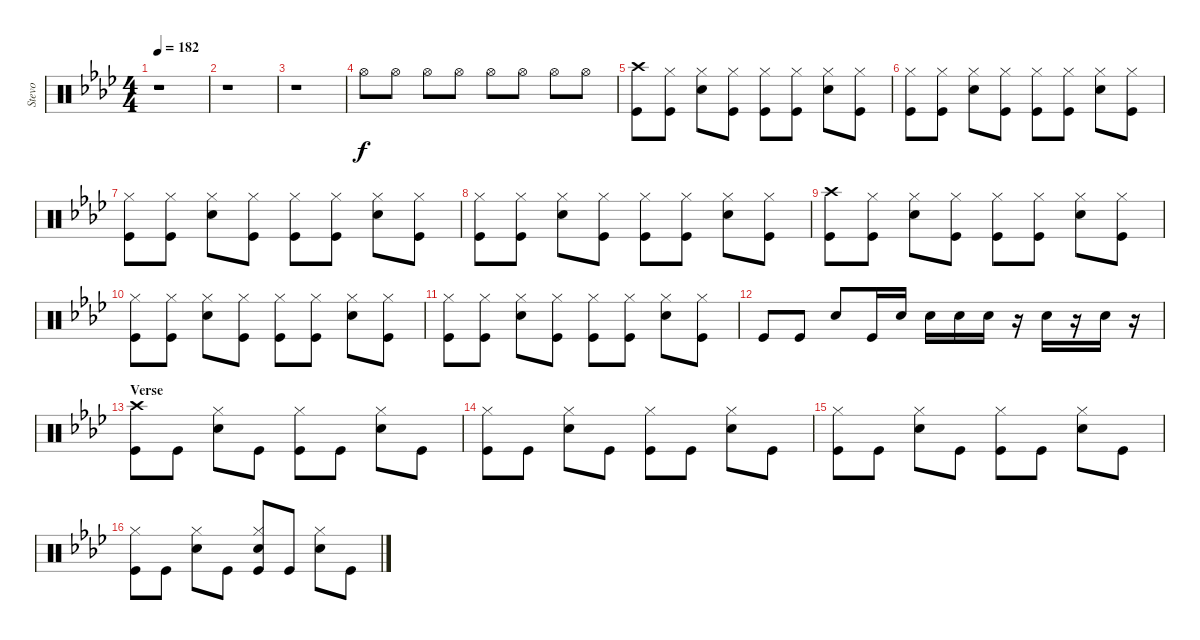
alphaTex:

\track ("Stevo" "Stevo") {instrument percussion}
\staff {score}
\articulation defaults
\ts (4 4)
\tempo 182
\clef neutral
\ks ab
r.1{dy f} |
r.1 |
r.1 |
\section ("" "")
"Hi-Hat (open)".8 "Hi-Hat (open)".8 "Hi-Hat (open)".8 "Hi-Hat (open)".8 "Hi-Hat (open)".8 "Hi-Hat (open)".8 "Hi-Hat (open)".8 "Hi-Hat (open)".8 |
("Crash high (hit)" "Kick (hit)").8 ("Hi-Hat (closed)" "Kick (hit)").8 ("Hi-Hat (closed)" "Snare (hit) 2").8 ("Hi-Hat (closed)" "Kick (hit)").8 ("Hi-Hat (closed)" "Kick (hit)").8 ("Hi-Hat (closed)" "Kick (hit)").8 ("Hi-Hat (closed)" "Snare (hit) 2").8 ("Hi-Hat (closed)" "Kick (hit)").8 |
("Hi-Hat (closed)" "Kick (hit)").8 ("Hi-Hat (closed)" "Kick (hit)").8 ("Hi-Hat (closed)" "Snare (hit) 2").8 ("Hi-Hat (closed)" "Kick (hit)").8 ("Hi-Hat (closed)" "Kick (hit)").8 ("Hi-Hat (closed)" "Kick (hit)").8 ("Hi-Hat (closed)" "Snare (hit) 2").8 ("Hi-Hat (closed)" "Kick (hit)").8 |
("Hi-Hat (closed)" "Kick (hit)").8 ("Hi-Hat (closed)" "Kick (hit)").8 ("Hi-Hat (closed)" "Snare (hit) 2").8 ("Hi-Hat (closed)" "Kick (hit)").8 ("Hi-Hat (closed)" "Kick (hit)").8 ("Hi-Hat (closed)" "Kick (hit)").8 ("Hi-Hat (closed)" "Snare (hit) 2").8 ("Hi-Hat (closed)" "Kick (hit)").8 |
("Hi-Hat (closed)" "Kick (hit)").8 ("Hi-Hat (closed)" "Kick (hit)").8 ("Hi-Hat (closed)" "Snare (hit) 2").8 ("Hi-Hat (closed)" "Kick (hit)").8 ("Hi-Hat (closed)" "Kick (hit)").8 ("Hi-Hat (closed)" "Kick (hit)").8 ("Hi-Hat (closed)" "Snare (hit) 2").8 ("Hi-Hat (closed)" "Kick (hit)").8 |
("Crash high (hit)" "Kick (hit)").8 ("Hi-Hat (closed)" "Kick (hit)").8 ("Hi-Hat (closed)" "Snare (hit) 2").8 ("Hi-Hat (closed)" "Kick (hit)").8 ("Hi-Hat (closed)" "Kick (hit)").8 ("Hi-Hat (closed)" "Kick (hit)").8 ("Hi-Hat (closed)" "Snare (hit) 2").8 ("Hi-Hat (closed)" "Kick (hit)").8 |
("Hi-Hat (closed)" "Kick (hit)").8 ("Hi-Hat (closed)" "Kick (hit)").8 ("Hi-Hat (closed)" "Snare (hit) 2").8 ("Hi-Hat (closed)" "Kick (hit)").8 ("Hi-Hat (closed)" "Kick (hit)").8 ("Hi-Hat (closed)" "Kick (hit)").8 ("Hi-Hat (closed)" "Snare (hit) 2").8 ("Hi-Hat (closed)" "Kick (hit)").8 |
("Hi-Hat (closed)" "Kick (hit)").8 ("Hi-Hat (closed)" "Kick (hit)").8 ("Hi-Hat (closed)" "Snare (hit) 2").8 ("Hi-Hat (closed)" "Kick (hit)").8 ("Hi-Hat (closed)" "Kick (hit)").8 ("Hi-Hat (closed)" "Kick (hit)").8 ("Hi-Hat (closed)" "Snare (hit) 2").8 ("Hi-Hat (closed)" "Kick (hit)").8 |
"Kick (hit)".8 "Kick (hit)".8 "Snare (hit) 2".8 "Kick (hit)".16 "Snare (hit) 2".16 "Snare (hit) 2".16 "Snare (hit) 2".16 "Snare (hit) 2".16 r.16 "Snare (hit) 2".16 r.16 "Snare (hit) 2".16 r.16 |
\section ("" "Verse")
("Crash high (hit)" "Kick (hit)").8 "Kick (hit)".8 ("Hi-Hat (closed)" "Snare (hit) 2").8 "Kick (hit)".8 ("Hi-Hat (closed)" "Kick (hit)").8 "Kick (hit)".8 ("Hi-Hat (closed)" "Snare (hit) 2").8 "Kick (hit)".8 |
("Hi-Hat (closed)" "Kick (hit)").8 "Kick (hit)".8 ("Hi-Hat (closed)" "Snare (hit) 2").8 "Kick (hit)".8 ("Hi-Hat (closed)" "Kick (hit)").8 "Kick (hit)".8 ("Hi-Hat (closed)" "Snare (hit) 2").8 "Kick (hit)".8 |
("Hi-Hat (closed)" "Kick (hit)").8 "Kick (hit)".8 ("Hi-Hat (closed)" "Snare (hit) 2").8 "Kick (hit)".8 ("Hi-Hat (closed)" "Kick (hit)").8 "Kick (hit)".8 ("Hi-Hat (closed)" "Snare (hit) 2").8 "Kick (hit)".8 |
("Hi-Hat (closed)" "Kick (hit)").8 "Kick (hit)".8 ("Hi-Hat (closed)" "Snare (hit) 2").8 "Kick (hit)".8 ("Hi-Hat (closed)" "Snare (hit) 2" "Kick (hit)").8 "Kick (hit)".8 ("Hi-Hat (closed)" "Snare (hit) 2").8 "Kick (hit)".8
